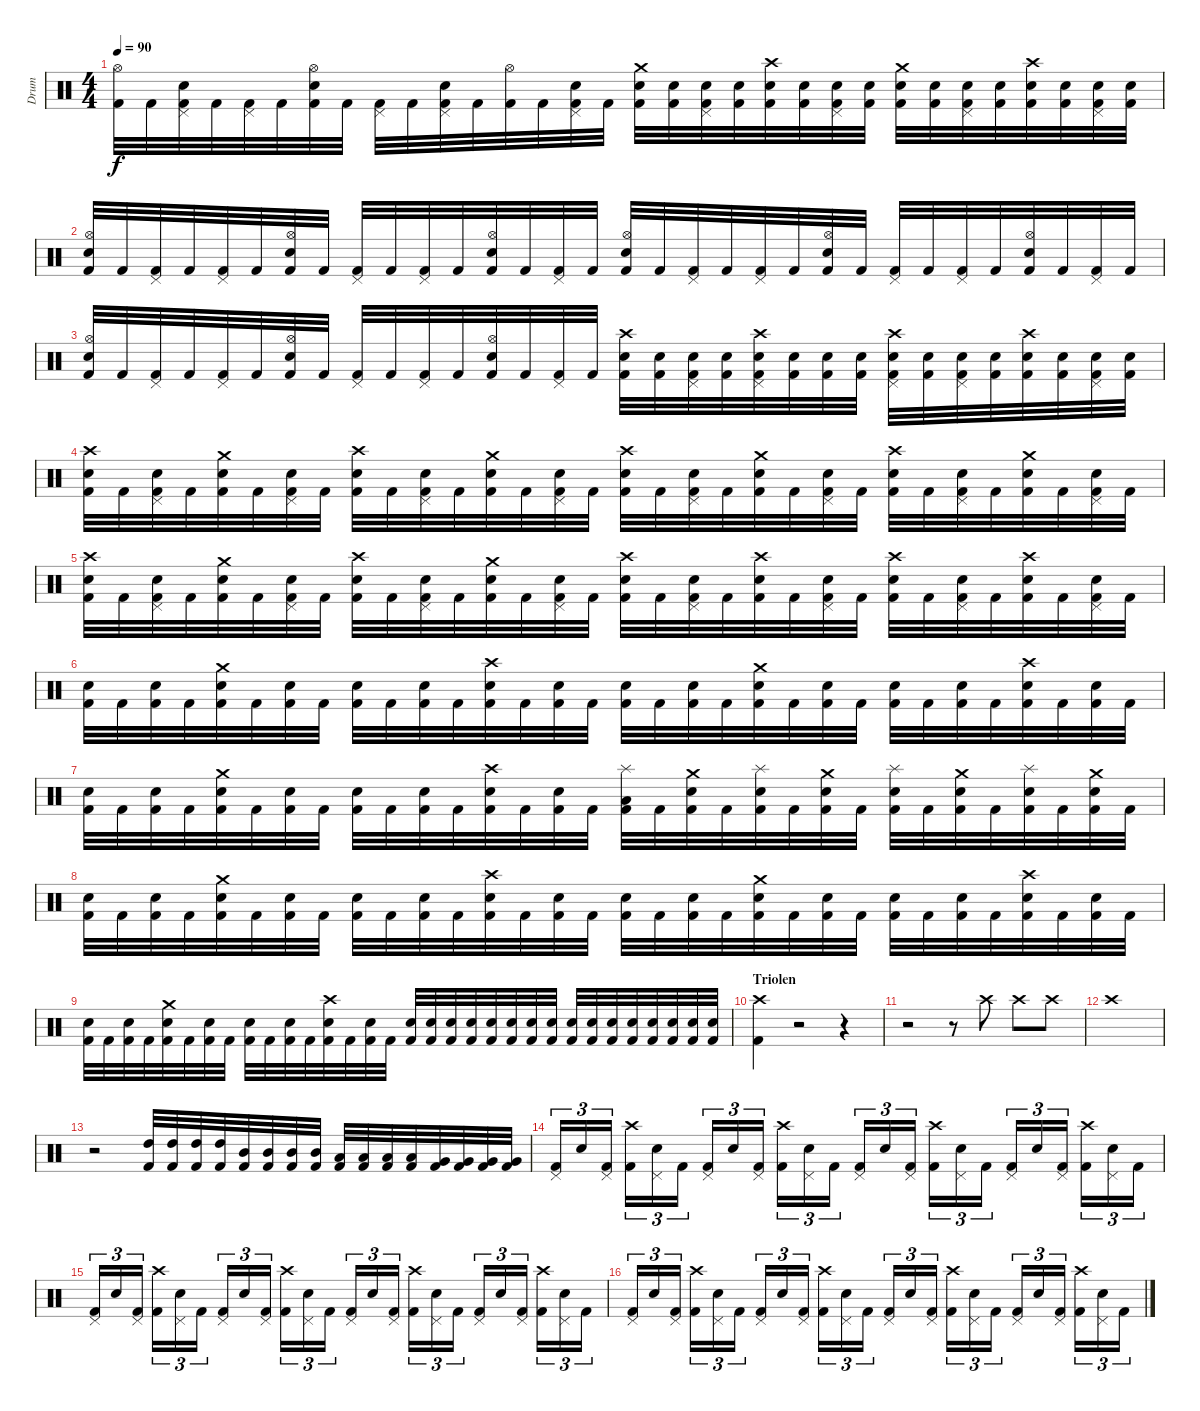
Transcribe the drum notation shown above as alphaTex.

\track ("Drum" "Drum") {instrument percussion}
\staff {score}
\articulation defaults
\ts (4 4)
\tempo 90
\clef neutral
\ks c
("Kick (hit) 2" "Hi-Hat (open)").32{dy f} "Kick (hit) 2".32 ("Kick (hit) 2" "Pedal Hi-Hat (hit)" "Snare (hit) 2").32 "Kick (hit) 2".32 ("Kick (hit) 2" "Pedal Hi-Hat (hit)").32 "Kick (hit) 2".32 ("Kick (hit) 2" "Hi-Hat (open)" "Snare (hit) 2").32 "Kick (hit) 2".32 ("Kick (hit) 2" "Pedal Hi-Hat (hit)").32 "Kick (hit) 2".32 ("Kick (hit) 2" "Pedal Hi-Hat (hit)" "Snare (hit) 2").32 "Kick (hit) 2".32 ("Kick (hit) 2" "Hi-Hat (open)").32 "Kick (hit) 2".32 ("Kick (hit) 2" "Pedal Hi-Hat (hit)" "Snare (hit) 2").32 "Kick (hit) 2".32 ("Kick (hit) 2" "Snare (hit) 2" "Crash medium (hit)").32 ("Kick (hit) 2" "Snare (hit) 2").32 ("Kick (hit) 2" "Pedal Hi-Hat (hit)" "Snare (hit) 2").32 ("Kick (hit) 2" "Snare (hit) 2").32 ("Kick (hit) 2" "Snare (hit) 2" "Crash high (hit)").32 ("Kick (hit) 2" "Snare (hit) 2").32 ("Kick (hit) 2" "Pedal Hi-Hat (hit)" "Snare (hit) 2").32 ("Kick (hit) 2" "Snare (hit) 2").32 ("Kick (hit) 2" "Snare (hit) 2" "Crash medium (hit)").32 ("Kick (hit) 2" "Snare (hit) 2").32 ("Kick (hit) 2" "Pedal Hi-Hat (hit)" "Snare (hit) 2").32 ("Kick (hit) 2" "Snare (hit) 2").32 ("Kick (hit) 2" "Snare (hit) 2" "Crash high (hit)").32 ("Kick (hit) 2" "Snare (hit) 2").32 ("Kick (hit) 2" "Pedal Hi-Hat (hit)" "Snare (hit) 2").32 ("Kick (hit) 2" "Snare (hit) 2").32 |
\section ("" "")
("Kick (hit) 2" "Hi-Hat (open)" "Snare (hit) 2").32 "Kick (hit) 2".32 ("Kick (hit) 2" "Pedal Hi-Hat (hit)").32 "Kick (hit) 2".32 ("Kick (hit) 2" "Pedal Hi-Hat (hit)").32 "Kick (hit) 2".32 ("Kick (hit) 2" "Hi-Hat (open)" "Snare (hit) 2").32 "Kick (hit) 2".32 ("Kick (hit) 2" "Pedal Hi-Hat (hit)").32 "Kick (hit) 2".32 ("Kick (hit) 2" "Pedal Hi-Hat (hit)").32 "Kick (hit) 2".32 ("Kick (hit) 2" "Hi-Hat (open)" "Snare (hit) 2").32 "Kick (hit) 2".32 ("Kick (hit) 2" "Pedal Hi-Hat (hit)").32 "Kick (hit) 2".32 ("Kick (hit) 2" "Hi-Hat (open)" "Snare (hit) 2").32 "Kick (hit) 2".32 ("Kick (hit) 2" "Pedal Hi-Hat (hit)").32 "Kick (hit) 2".32 ("Kick (hit) 2" "Pedal Hi-Hat (hit)").32 "Kick (hit) 2".32 ("Kick (hit) 2" "Hi-Hat (open)" "Snare (hit) 2").32 "Kick (hit) 2".32 ("Kick (hit) 2" "Pedal Hi-Hat (hit)").32 "Kick (hit) 2".32 ("Kick (hit) 2" "Pedal Hi-Hat (hit)").32 "Kick (hit) 2".32 ("Kick (hit) 2" "Hi-Hat (open)" "Snare (hit) 2").32 "Kick (hit) 2".32 ("Kick (hit) 2" "Pedal Hi-Hat (hit)").32 "Kick (hit) 2".32 |
("Kick (hit) 2" "Hi-Hat (open)" "Snare (hit) 2").32 "Kick (hit) 2".32 ("Kick (hit) 2" "Pedal Hi-Hat (hit)").32 "Kick (hit) 2".32 ("Kick (hit) 2" "Pedal Hi-Hat (hit)").32 "Kick (hit) 2".32 ("Kick (hit) 2" "Hi-Hat (open)" "Snare (hit) 2").32 "Kick (hit) 2".32 ("Kick (hit) 2" "Pedal Hi-Hat (hit)").32 "Kick (hit) 2".32 ("Kick (hit) 2" "Pedal Hi-Hat (hit)").32 "Kick (hit) 2".32 ("Kick (hit) 2" "Hi-Hat (open)" "Snare (hit) 2").32 "Kick (hit) 2".32 ("Kick (hit) 2" "Pedal Hi-Hat (hit)").32 "Kick (hit) 2".32 ("Kick (hit) 2" "Snare (hit) 2" "Crash high (hit)").32 ("Kick (hit) 2" "Snare (hit) 2").32 ("Kick (hit) 2" "Pedal Hi-Hat (hit)" "Snare (hit) 2").32 ("Kick (hit) 2" "Snare (hit) 2").32 ("Kick (hit) 2" "Pedal Hi-Hat (hit)" "Snare (hit) 2" "Crash high (hit)").32 ("Kick (hit) 2" "Snare (hit) 2").32 ("Kick (hit) 2" "Snare (hit) 2").32 ("Kick (hit) 2" "Snare (hit) 2").32 ("Kick (hit) 2" "Pedal Hi-Hat (hit)" "Snare (hit) 2" "Crash high (hit)").32 ("Kick (hit) 2" "Snare (hit) 2").32 ("Kick (hit) 2" "Pedal Hi-Hat (hit)" "Snare (hit) 2").32 ("Kick (hit) 2" "Snare (hit) 2").32 ("Kick (hit) 2" "Snare (hit) 2" "Crash high (hit)").32 ("Kick (hit) 2" "Snare (hit) 2").32 ("Kick (hit) 2" "Pedal Hi-Hat (hit)" "Snare (hit) 2").32 ("Kick (hit) 2" "Snare (hit) 2").32 |
("Kick (hit) 2" "Snare (hit) 2" "Crash high (hit)").32 "Kick (hit) 2".32 ("Kick (hit) 2" "Pedal Hi-Hat (hit)" "Snare (hit) 2").32 "Kick (hit) 2".32 ("Kick (hit) 2" "Snare (hit) 2" "Crash medium (hit)").32 "Kick (hit) 2".32 ("Kick (hit) 2" "Pedal Hi-Hat (hit)" "Snare (hit) 2").32 "Kick (hit) 2".32 ("Kick (hit) 2" "Snare (hit) 2" "Crash high (hit)").32 "Kick (hit) 2".32 ("Kick (hit) 2" "Pedal Hi-Hat (hit)" "Snare (hit) 2").32 "Kick (hit) 2".32 ("Kick (hit) 2" "Snare (hit) 2" "Crash medium (hit)").32 "Kick (hit) 2".32 ("Kick (hit) 2" "Pedal Hi-Hat (hit)" "Snare (hit) 2").32 "Kick (hit) 2".32 ("Kick (hit) 2" "Snare (hit) 2" "Crash high (hit)").32 "Kick (hit) 2".32 ("Kick (hit) 2" "Pedal Hi-Hat (hit)" "Snare (hit) 2").32 "Kick (hit) 2".32 ("Kick (hit) 2" "Snare (hit) 2" "Crash medium (hit)").32 "Kick (hit) 2".32 ("Kick (hit) 2" "Pedal Hi-Hat (hit)" "Snare (hit) 2").32 "Kick (hit) 2".32 ("Kick (hit) 2" "Snare (hit) 2" "Crash high (hit)").32 "Kick (hit) 2".32 ("Kick (hit) 2" "Pedal Hi-Hat (hit)" "Snare (hit) 2").32 "Kick (hit) 2".32 ("Kick (hit) 2" "Snare (hit) 2" "Crash medium (hit)").32 "Kick (hit) 2".32 ("Kick (hit) 2" "Pedal Hi-Hat (hit)" "Snare (hit) 2").32 "Kick (hit) 2".32 |
("Kick (hit) 2" "Snare (hit) 2" "Crash high (hit)").32 "Kick (hit) 2".32 ("Kick (hit) 2" "Pedal Hi-Hat (hit)" "Snare (hit) 2").32 "Kick (hit) 2".32 ("Kick (hit) 2" "Snare (hit) 2" "Crash medium (hit)").32 "Kick (hit) 2".32 ("Kick (hit) 2" "Pedal Hi-Hat (hit)" "Snare (hit) 2").32 "Kick (hit) 2".32 ("Kick (hit) 2" "Snare (hit) 2" "Crash high (hit)").32 "Kick (hit) 2".32 ("Kick (hit) 2" "Pedal Hi-Hat (hit)" "Snare (hit) 2").32 "Kick (hit) 2".32 ("Kick (hit) 2" "Snare (hit) 2" "Crash medium (hit)").32 "Kick (hit) 2".32 ("Kick (hit) 2" "Pedal Hi-Hat (hit)" "Snare (hit) 2").32 "Kick (hit) 2".32 ("Kick (hit) 2" "Snare (hit) 2" "Crash high (hit)").32 "Kick (hit) 2".32 ("Kick (hit) 2" "Pedal Hi-Hat (hit)" "Snare (hit) 2").32 "Kick (hit) 2".32 ("Kick (hit) 2" "Snare (hit) 2" "Crash high (hit)").32 "Kick (hit) 2".32 ("Kick (hit) 2" "Pedal Hi-Hat (hit)" "Snare (hit) 2").32 "Kick (hit) 2".32 ("Kick (hit) 2" "Snare (hit) 2" "Crash high (hit)").32 "Kick (hit) 2".32 ("Kick (hit) 2" "Pedal Hi-Hat (hit)" "Snare (hit) 2").32 "Kick (hit) 2".32 ("Kick (hit) 2" "Snare (hit) 2" "Crash high (hit)").32 "Kick (hit) 2".32 ("Kick (hit) 2" "Pedal Hi-Hat (hit)" "Snare (hit) 2").32 "Kick (hit) 2".32 |
("Kick (hit) 2" "Snare (hit) 2").32 "Kick (hit) 2".32 ("Kick (hit) 2" "Snare (hit) 2").32 "Kick (hit) 2".32 ("Kick (hit) 2" "Snare (hit) 2" "Crash medium (hit)").32 "Kick (hit) 2".32 ("Kick (hit) 2" "Snare (hit) 2").32 "Kick (hit) 2".32 ("Kick (hit) 2" "Snare (hit) 2").32 "Kick (hit) 2".32 ("Kick (hit) 2" "Snare (hit) 2").32 "Kick (hit) 2".32 ("Kick (hit) 2" "Snare (hit) 2" "Crash high (hit)").32 "Kick (hit) 2".32 ("Kick (hit) 2" "Snare (hit) 2").32 "Kick (hit) 2".32 ("Kick (hit) 2" "Snare (hit) 2").32 "Kick (hit) 2".32 ("Kick (hit) 2" "Snare (hit) 2").32 "Kick (hit) 2".32 ("Kick (hit) 2" "Snare (hit) 2" "Crash medium (hit)").32 "Kick (hit) 2".32 ("Kick (hit) 2" "Snare (hit) 2").32 "Kick (hit) 2".32 ("Kick (hit) 2" "Snare (hit) 2").32 "Kick (hit) 2".32 ("Kick (hit) 2" "Snare (hit) 2").32 "Kick (hit) 2".32 ("Kick (hit) 2" "Snare (hit) 2" "Crash high (hit)").32 "Kick (hit) 2".32 ("Kick (hit) 2" "Snare (hit) 2").32 "Kick (hit) 2".32 |
("Kick (hit) 2" "Snare (hit) 2").32 "Kick (hit) 2".32 ("Kick (hit) 2" "Snare (hit) 2").32 "Kick (hit) 2".32 ("Kick (hit) 2" "Snare (hit) 2" "Crash medium (hit)").32 "Kick (hit) 2".32 ("Kick (hit) 2" "Snare (hit) 2").32 "Kick (hit) 2".32 ("Kick (hit) 2" "Snare (hit) 2").32 "Kick (hit) 2".32 ("Kick (hit) 2" "Snare (hit) 2").32 "Kick (hit) 2".32 ("Kick (hit) 2" "Snare (hit) 2" "Crash high (hit)").32 "Kick (hit) 2".32 ("Kick (hit) 2" "Snare (hit) 2").32 "Kick (hit) 2".32 ("Kick (hit) 2" "Low Tom (hit)" "Splash (hit)").32 "Kick (hit) 2".32 ("Kick (hit) 2" "Snare (hit) 2" "Crash medium (hit)").32 "Kick (hit) 2".32 ("Kick (hit) 2" "Snare (hit) 2" "Splash (hit)").32 "Kick (hit) 2".32 ("Kick (hit) 2" "Snare (hit) 2" "Crash medium (hit)").32 "Kick (hit) 2".32 ("Kick (hit) 2" "Snare (hit) 2" "Splash (hit)").32 "Kick (hit) 2".32 ("Kick (hit) 2" "Snare (hit) 2" "Crash medium (hit)").32 "Kick (hit) 2".32 ("Kick (hit) 2" "Snare (hit) 2" "Splash (hit)").32 "Kick (hit) 2".32 ("Kick (hit) 2" "Snare (hit) 2" "Crash medium (hit)").32 "Kick (hit) 2".32 |
("Kick (hit) 2" "Snare (hit) 2").32 "Kick (hit) 2".32 ("Kick (hit) 2" "Snare (hit) 2").32 "Kick (hit) 2".32 ("Kick (hit) 2" "Snare (hit) 2" "Crash medium (hit)").32 "Kick (hit) 2".32 ("Kick (hit) 2" "Snare (hit) 2").32 "Kick (hit) 2".32 ("Kick (hit) 2" "Snare (hit) 2").32 "Kick (hit) 2".32 ("Kick (hit) 2" "Snare (hit) 2").32 "Kick (hit) 2".32 ("Kick (hit) 2" "Snare (hit) 2" "Crash high (hit)").32 "Kick (hit) 2".32 ("Kick (hit) 2" "Snare (hit) 2").32 "Kick (hit) 2".32 ("Kick (hit) 2" "Snare (hit) 2").32 "Kick (hit) 2".32 ("Kick (hit) 2" "Snare (hit) 2").32 "Kick (hit) 2".32 ("Kick (hit) 2" "Snare (hit) 2" "Crash medium (hit)").32 "Kick (hit) 2".32 ("Kick (hit) 2" "Snare (hit) 2").32 "Kick (hit) 2".32 ("Kick (hit) 2" "Snare (hit) 2").32 "Kick (hit) 2".32 ("Kick (hit) 2" "Snare (hit) 2").32 "Kick (hit) 2".32 ("Kick (hit) 2" "Snare (hit) 2" "Crash high (hit)").32 "Kick (hit) 2".32 ("Kick (hit) 2" "Snare (hit) 2").32 "Kick (hit) 2".32 |
("Kick (hit) 2" "Snare (hit) 2").32 "Kick (hit) 2".32 ("Kick (hit) 2" "Snare (hit) 2").32 "Kick (hit) 2".32 ("Kick (hit) 2" "Snare (hit) 2" "Crash medium (hit)").32 "Kick (hit) 2".32 ("Kick (hit) 2" "Snare (hit) 2").32 "Kick (hit) 2".32 ("Kick (hit) 2" "Snare (hit) 2").32 "Kick (hit) 2".32 ("Kick (hit) 2" "Snare (hit) 2").32 "Kick (hit) 2".32 ("Kick (hit) 2" "Snare (hit) 2" "Crash high (hit)").32 "Kick (hit) 2".32 ("Kick (hit) 2" "Snare (hit) 2").32 "Kick (hit) 2".32 ("Kick (hit) 2" "Snare (hit) 2").32 ("Kick (hit) 2" "Snare (hit) 2").32 ("Kick (hit) 2" "Snare (hit) 2").32 ("Kick (hit) 2" "Snare (hit) 2").32 ("Kick (hit) 2" "Snare (hit) 2").32 ("Kick (hit) 2" "Snare (hit) 2").32 ("Kick (hit) 2" "Snare (hit) 2").32 ("Kick (hit) 2" "Snare (hit) 2").32 ("Kick (hit) 2" "Snare (hit) 2").32 ("Kick (hit) 2" "Snare (hit) 2").32 ("Kick (hit) 2" "Snare (hit) 2").32 ("Kick (hit) 2" "Snare (hit) 2").32 ("Kick (hit) 2" "Snare (hit) 2").32 ("Kick (hit) 2" "Snare (hit) 2").32 ("Kick (hit) 2" "Snare (hit) 2").32 ("Kick (hit) 2" "Snare (hit) 2").32 |
\section ("" "Triolen")
("Kick (hit) 2" "Crash high (hit)").4 r.2 r.4 |
r.2 r.8 "Crash high (hit)".8 "Crash high (hit)".8 "Crash high (hit)".8 |
"Crash high (hit)".1 |
r.2 ("Kick (hit) 2" "High Tom (hit)").32 ("Kick (hit) 2" "High Tom (hit)").32 ("Kick (hit) 2" "High Tom (hit)").32 ("Kick (hit) 2" "High Tom (hit)").32 ("Kick (hit) 2" "Mid Tom (hit)").32 ("Kick (hit) 2" "Mid Tom (hit)").32 ("Kick (hit) 2" "Mid Tom (hit)").32 ("Kick (hit) 2" "Mid Tom (hit)").32 ("Kick (hit) 2" "Low Tom (hit)").32 ("Kick (hit) 2" "Low Tom (hit)").32 ("Kick (hit) 2" "Low Tom (hit)").32 ("Kick (hit) 2" "Low Tom (hit)").32 ("Kick (hit) 2" "Very Low Tom (hit)").32 ("Kick (hit) 2" "Very Low Tom (hit)").32 ("Kick (hit) 2" "Very Low Tom (hit)").32 ("Kick (hit) 2" "Very Low Tom (hit)").32 |
("Kick (hit) 2" "Pedal Hi-Hat (hit)").16{tu (3 2)} "Snare (hit) 2".16{tu (3 2)} ("Kick (hit) 2" "Pedal Hi-Hat (hit)").16{tu (3 2)} ("Kick (hit) 2" "Crash high (hit)").16{tu (3 2)} ("Snare (hit) 2" "Pedal Hi-Hat (hit)").16{tu (3 2)} "Kick (hit) 2".16{tu (3 2)} ("Kick (hit) 2" "Pedal Hi-Hat (hit)").16{tu (3 2)} "Snare (hit) 2".16{tu (3 2)} ("Kick (hit) 2" "Pedal Hi-Hat (hit)").16{tu (3 2)} ("Kick (hit) 2" "Crash high (hit)").16{tu (3 2)} ("Snare (hit) 2" "Pedal Hi-Hat (hit)").16{tu (3 2)} "Kick (hit) 2".16{tu (3 2)} ("Kick (hit) 2" "Pedal Hi-Hat (hit)").16{tu (3 2)} "Snare (hit) 2".16{tu (3 2)} ("Kick (hit) 2" "Pedal Hi-Hat (hit)").16{tu (3 2)} ("Kick (hit) 2" "Crash high (hit)").16{tu (3 2)} ("Snare (hit) 2" "Pedal Hi-Hat (hit)").16{tu (3 2)} "Kick (hit) 2".16{tu (3 2)} ("Kick (hit) 2" "Pedal Hi-Hat (hit)").16{tu (3 2)} "Snare (hit) 2".16{tu (3 2)} ("Kick (hit) 2" "Pedal Hi-Hat (hit)").16{tu (3 2)} ("Kick (hit) 2" "Crash high (hit)").16{tu (3 2)} ("Snare (hit) 2" "Pedal Hi-Hat (hit)").16{tu (3 2)} "Kick (hit) 2".16{tu (3 2)} |
("Kick (hit) 2" "Pedal Hi-Hat (hit)").16{tu (3 2)} "Snare (hit) 2".16{tu (3 2)} ("Kick (hit) 2" "Pedal Hi-Hat (hit)").16{tu (3 2)} ("Kick (hit) 2" "Crash high (hit)").16{tu (3 2)} ("Snare (hit) 2" "Pedal Hi-Hat (hit)").16{tu (3 2)} "Kick (hit) 2".16{tu (3 2)} ("Kick (hit) 2" "Pedal Hi-Hat (hit)").16{tu (3 2)} "Snare (hit) 2".16{tu (3 2)} ("Kick (hit) 2" "Pedal Hi-Hat (hit)").16{tu (3 2)} ("Kick (hit) 2" "Crash high (hit)").16{tu (3 2)} ("Snare (hit) 2" "Pedal Hi-Hat (hit)").16{tu (3 2)} "Kick (hit) 2".16{tu (3 2)} ("Kick (hit) 2" "Pedal Hi-Hat (hit)").16{tu (3 2)} "Snare (hit) 2".16{tu (3 2)} ("Kick (hit) 2" "Pedal Hi-Hat (hit)").16{tu (3 2)} ("Kick (hit) 2" "Crash high (hit)").16{tu (3 2)} ("Snare (hit) 2" "Pedal Hi-Hat (hit)").16{tu (3 2)} "Kick (hit) 2".16{tu (3 2)} ("Kick (hit) 2" "Pedal Hi-Hat (hit)").16{tu (3 2)} "Snare (hit) 2".16{tu (3 2)} ("Kick (hit) 2" "Pedal Hi-Hat (hit)").16{tu (3 2)} ("Kick (hit) 2" "Crash high (hit)").16{tu (3 2)} ("Snare (hit) 2" "Pedal Hi-Hat (hit)").16{tu (3 2)} "Kick (hit) 2".16{tu (3 2)} |
("Kick (hit) 2" "Pedal Hi-Hat (hit)").16{tu (3 2)} "Snare (hit) 2".16{tu (3 2)} ("Kick (hit) 2" "Pedal Hi-Hat (hit)").16{tu (3 2)} ("Kick (hit) 2" "Crash high (hit)").16{tu (3 2)} ("Snare (hit) 2" "Pedal Hi-Hat (hit)").16{tu (3 2)} "Kick (hit) 2".16{tu (3 2)} ("Kick (hit) 2" "Pedal Hi-Hat (hit)").16{tu (3 2)} "Snare (hit) 2".16{tu (3 2)} ("Kick (hit) 2" "Pedal Hi-Hat (hit)").16{tu (3 2)} ("Kick (hit) 2" "Crash high (hit)").16{tu (3 2)} ("Snare (hit) 2" "Pedal Hi-Hat (hit)").16{tu (3 2)} "Kick (hit) 2".16{tu (3 2)} ("Kick (hit) 2" "Pedal Hi-Hat (hit)").16{tu (3 2)} "Snare (hit) 2".16{tu (3 2)} ("Kick (hit) 2" "Pedal Hi-Hat (hit)").16{tu (3 2)} ("Kick (hit) 2" "Crash high (hit)").16{tu (3 2)} ("Snare (hit) 2" "Pedal Hi-Hat (hit)").16{tu (3 2)} "Kick (hit) 2".16{tu (3 2)} ("Kick (hit) 2" "Pedal Hi-Hat (hit)").16{tu (3 2)} "Snare (hit) 2".16{tu (3 2)} ("Kick (hit) 2" "Pedal Hi-Hat (hit)").16{tu (3 2)} ("Kick (hit) 2" "Crash high (hit)").16{tu (3 2)} ("Snare (hit) 2" "Pedal Hi-Hat (hit)").16{tu (3 2)} "Kick (hit) 2".16{tu (3 2)}
